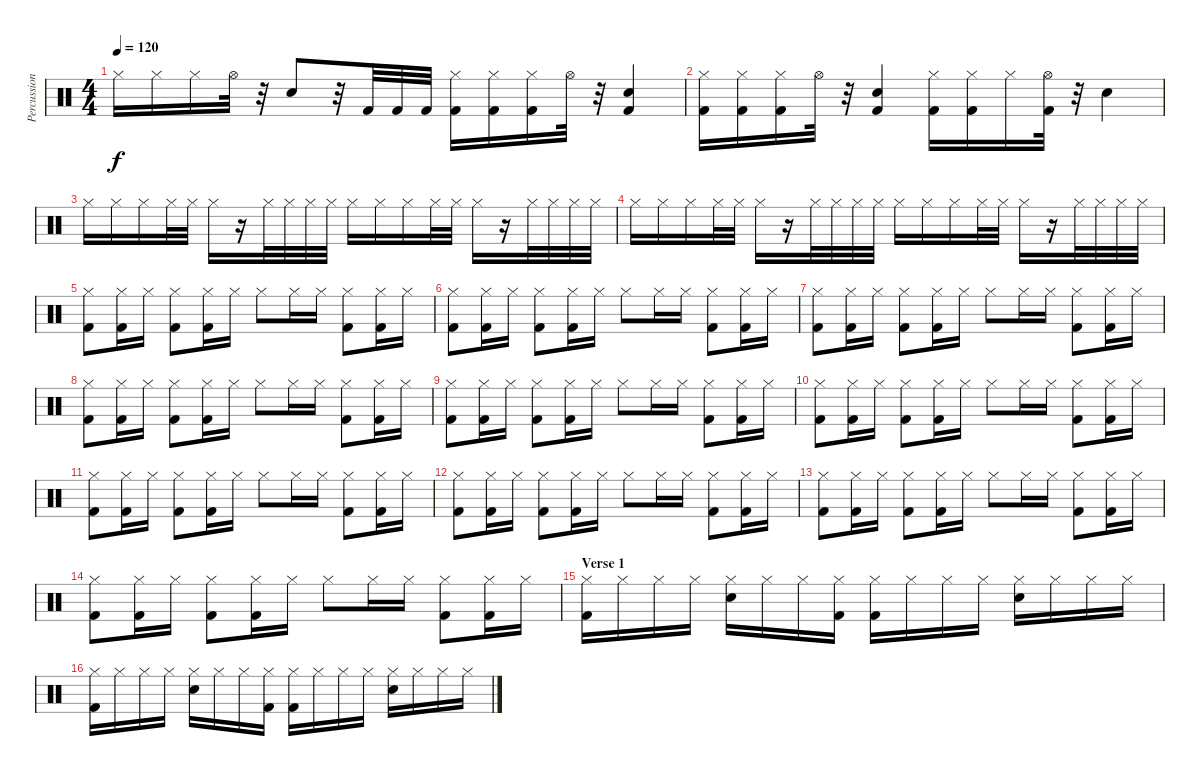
\track ("Percussion" "Percussion") {instrument percussion}
\staff {score}
\articulation defaults
\ts (4 4)
\tempo 120
\clef neutral
\ks c "Hi-Hat (closed)".16{dy f} "Hi-Hat (closed)".16 "Hi-Hat (closed)".16 "Hi-Hat (open)".32
r.32 "Electric Snare (hit)".8 r.32 "Kick (hit) 2".32 "Kick (hit) 2".32 "Kick (hit) 2".32 ("Hi-Hat (closed)" "Kick (hit) 2").16 ("Hi-Hat (closed)" "Kick (hit) 2").16 ("Hi-Hat (closed)" "Kick (hit) 2").16 "Hi-Hat (open)".32 r.32 ("Electric Snare (hit)" "Kick (hit) 2").4 |
("Hi-Hat (closed)" "Kick (hit) 2").16 ("Hi-Hat (closed)" "Kick (hit) 2").16 ("Hi-Hat (closed)" "Kick (hit) 2").16 "Hi-Hat (open)".32 r.32 ("Electric Snare (hit)" "Kick (hit) 2").4 ("Hi-Hat (closed)" "Kick (hit) 2").16 ("Hi-Hat (closed)" "Kick (hit) 2").16 "Hi-Hat (closed)".16 ("Hi-Hat (open)" "Kick (hit) 2").32 r.32 "Electric Snare (hit)".4 |
"Hi-Hat (closed)".16 "Hi-Hat (closed)".16 "Hi-Hat (closed)".16 "Hi-Hat (closed)".32 "Hi-Hat (closed)".32 "Hi-Hat (closed)".16 r.16 "Hi-Hat (closed)".32 "Hi-Hat (closed)".32 "Hi-Hat (closed)".32 "Hi-Hat (closed)".32 "Hi-Hat (closed)".16 "Hi-Hat (closed)".16 "Hi-Hat (closed)".16 "Hi-Hat (closed)".32 "Hi-Hat (closed)".32 "Hi-Hat (closed)".16 r.16 "Hi-Hat (closed)".32 "Hi-Hat (closed)".32 "Hi-Hat (closed)".32 "Hi-Hat (closed)".32 |
"Hi-Hat (closed)".16 "Hi-Hat (closed)".16 "Hi-Hat (closed)".16 "Hi-Hat (closed)".32 "Hi-Hat (closed)".32 "Hi-Hat (closed)".16 r.16 "Hi-Hat (closed)".32 "Hi-Hat (closed)".32 "Hi-Hat (closed)".32 "Hi-Hat (closed)".32 "Hi-Hat (closed)".16 "Hi-Hat (closed)".16 "Hi-Hat (closed)".16 "Hi-Hat (closed)".32 "Hi-Hat (closed)".32 "Hi-Hat (closed)".16 r.16 "Hi-Hat (closed)".32 "Hi-Hat (closed)".32 "Hi-Hat (closed)".32 "Hi-Hat (closed)".32 |
("Hi-Hat (closed)" "Kick (hit) 2").8 ("Hi-Hat (closed)" "Kick (hit) 2").16 "Hi-Hat (closed)".16 ("Hi-Hat (closed)" "Kick (hit) 2").8 ("Hi-Hat (closed)" "Kick (hit) 2").16 "Hi-Hat (closed)".16 "Hi-Hat (closed)".8 "Hi-Hat (closed)".16 "Hi-Hat (closed)".16 ("Hi-Hat (closed)" "Kick (hit) 2").8 ("Hi-Hat (closed)" "Kick (hit) 2").16 "Hi-Hat (closed)".16 |
("Hi-Hat (closed)" "Kick (hit) 2").8 ("Hi-Hat (closed)" "Kick (hit) 2").16 "Hi-Hat (closed)".16 ("Hi-Hat (closed)" "Kick (hit) 2").8 ("Hi-Hat (closed)" "Kick (hit) 2").16 "Hi-Hat (closed)".16 "Hi-Hat (closed)".8 "Hi-Hat (closed)".16 "Hi-Hat (closed)".16 ("Hi-Hat (closed)" "Kick (hit) 2").8 ("Hi-Hat (closed)" "Kick (hit) 2").16 "Hi-Hat (closed)".16 |
("Hi-Hat (closed)" "Kick (hit) 2").8 ("Hi-Hat (closed)" "Kick (hit) 2").16 "Hi-Hat (closed)".16 ("Hi-Hat (closed)" "Kick (hit) 2").8 ("Hi-Hat (closed)" "Kick (hit) 2").16 "Hi-Hat (closed)".16 "Hi-Hat (closed)".8 "Hi-Hat (closed)".16 "Hi-Hat (closed)".16 ("Hi-Hat (closed)" "Kick (hit) 2").8 ("Hi-Hat (closed)" "Kick (hit) 2").16 "Hi-Hat (closed)".16 |
("Hi-Hat (closed)" "Kick (hit) 2").8 ("Hi-Hat (closed)" "Kick (hit) 2").16 "Hi-Hat (closed)".16 ("Hi-Hat (closed)" "Kick (hit) 2").8 ("Hi-Hat (closed)" "Kick (hit) 2").16 "Hi-Hat (closed)".16 "Hi-Hat (closed)".8 "Hi-Hat (closed)".16 "Hi-Hat (closed)".16 ("Hi-Hat (closed)" "Kick (hit) 2").8 ("Hi-Hat (closed)" "Kick (hit) 2").16 "Hi-Hat (closed)".16 |
("Hi-Hat (closed)" "Kick (hit) 2").8 ("Hi-Hat (closed)" "Kick (hit) 2").16 "Hi-Hat (closed)".16 ("Hi-Hat (closed)" "Kick (hit) 2").8 ("Hi-Hat (closed)" "Kick (hit) 2").16 "Hi-Hat (closed)".16 "Hi-Hat (closed)".8 "Hi-Hat (closed)".16 "Hi-Hat (closed)".16 ("Hi-Hat (closed)" "Kick (hit) 2").8 ("Hi-Hat (closed)" "Kick (hit) 2").16 "Hi-Hat (closed)".16 |
("Hi-Hat (closed)" "Kick (hit) 2").8 ("Hi-Hat (closed)" "Kick (hit) 2").16 "Hi-Hat (closed)".16 ("Hi-Hat (closed)" "Kick (hit) 2").8 ("Hi-Hat (closed)" "Kick (hit) 2").16 "Hi-Hat (closed)".16 "Hi-Hat (closed)".8 "Hi-Hat (closed)".16 "Hi-Hat (closed)".16 ("Hi-Hat (closed)" "Kick (hit) 2").8 ("Hi-Hat (closed)" "Kick (hit) 2").16 "Hi-Hat (closed)".16 |
("Hi-Hat (closed)" "Kick (hit) 2").8 ("Hi-Hat (closed)" "Kick (hit) 2").16 "Hi-Hat (closed)".16 ("Hi-Hat (closed)" "Kick (hit) 2").8 ("Hi-Hat (closed)" "Kick (hit) 2").16 "Hi-Hat (closed)".16 "Hi-Hat (closed)".8 "Hi-Hat (closed)".16 "Hi-Hat (closed)".16 ("Hi-Hat (closed)" "Kick (hit) 2").8 ("Hi-Hat (closed)" "Kick (hit) 2").16 "Hi-Hat (closed)".16 |
("Hi-Hat (closed)" "Kick (hit) 2").8 ("Hi-Hat (closed)" "Kick (hit) 2").16 "Hi-Hat (closed)".16 ("Hi-Hat (closed)" "Kick (hit) 2").8 ("Hi-Hat (closed)" "Kick (hit) 2").16 "Hi-Hat (closed)".16 "Hi-Hat (closed)".8 "Hi-Hat (closed)".16 "Hi-Hat (closed)".16 ("Hi-Hat (closed)" "Kick (hit) 2").8 ("Hi-Hat (closed)" "Kick (hit) 2").16 "Hi-Hat (closed)".16 |
("Hi-Hat (closed)" "Kick (hit) 2").8 ("Hi-Hat (closed)" "Kick (hit) 2").16 "Hi-Hat (closed)".16 ("Hi-Hat (closed)" "Kick (hit) 2").8 ("Hi-Hat (closed)" "Kick (hit) 2").16 "Hi-Hat (closed)".16 "Hi-Hat (closed)".8 "Hi-Hat (closed)".16 "Hi-Hat (closed)".16 ("Hi-Hat (closed)" "Kick (hit) 2").8 ("Hi-Hat (closed)" "Kick (hit) 2").16 "Hi-Hat (closed)".16 |
("Hi-Hat (closed)" "Kick (hit) 2").8 ("Hi-Hat (closed)" "Kick (hit) 2").16 "Hi-Hat (closed)".16 ("Hi-Hat (closed)" "Kick (hit) 2").8 ("Hi-Hat (closed)" "Kick (hit) 2").16 "Hi-Hat (closed)".16 "Hi-Hat (closed)".8 "Hi-Hat (closed)".16 "Hi-Hat (closed)".16 ("Hi-Hat (closed)" "Kick (hit) 2").8 ("Hi-Hat (closed)" "Kick (hit) 2").16 "Hi-Hat (closed)".16 |
\section ("" "Verse 1")
("Hi-Hat (closed)" "Kick (hit) 2").16 "Hi-Hat (closed)".16 "Hi-Hat (closed)".16 "Hi-Hat (closed)".16 ("Hi-Hat (closed)" "Electric Snare (hit)").16 "Hi-Hat (closed)".16 "Hi-Hat (closed)".16 ("Hi-Hat (closed)" "Kick (hit) 2").16 ("Hi-Hat (closed)" "Kick (hit) 2").16 "Hi-Hat (closed)".16 "Hi-Hat (closed)".16 "Hi-Hat (closed)".16 ("Hi-Hat (closed)" "Electric Snare (hit)").16 "Hi-Hat (closed)".16 "Hi-Hat (closed)".16 "Hi-Hat (closed)".16 |
("Hi-Hat (closed)" "Kick (hit) 2").16 "Hi-Hat (closed)".16 "Hi-Hat (closed)".16 "Hi-Hat (closed)".16 ("Hi-Hat (closed)" "Electric Snare (hit)").16 "Hi-Hat (closed)".16 "Hi-Hat (closed)".16 ("Hi-Hat (closed)" "Kick (hit) 2").16 ("Hi-Hat (closed)" "Kick (hit) 2").16 "Hi-Hat (closed)".16 "Hi-Hat (closed)".16 "Hi-Hat (closed)".16 ("Hi-Hat (closed)" "Electric Snare (hit)").16 "Hi-Hat (closed)".16 "Hi-Hat (closed)".16 "Hi-Hat (closed)".16
